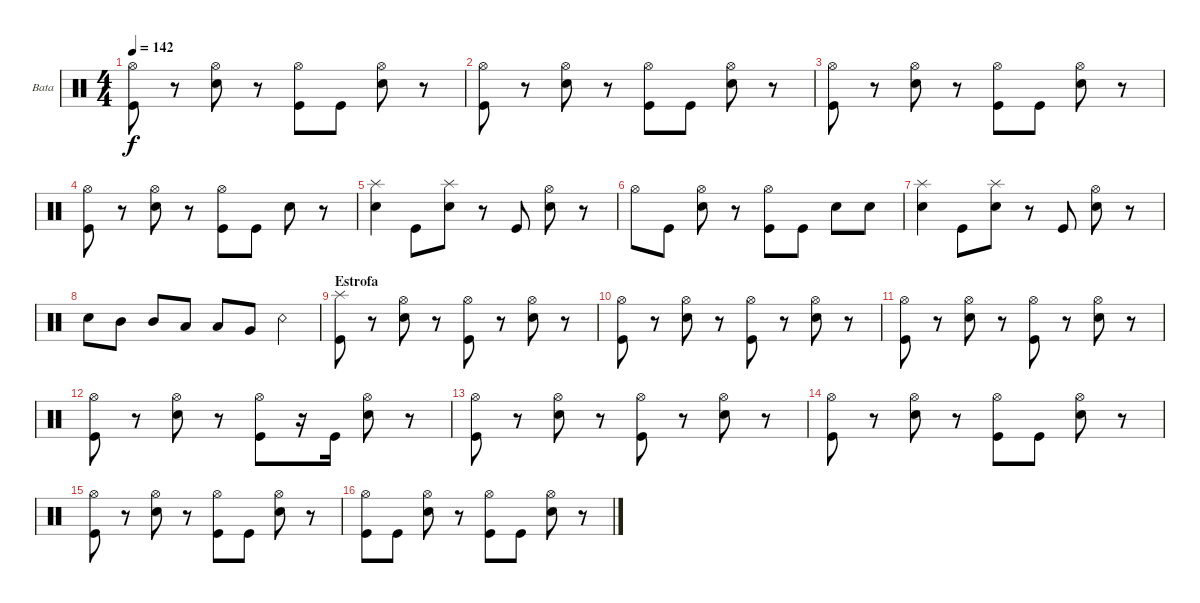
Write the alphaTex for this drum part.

\bracketExtendMode groupsimilarinstruments
\firstSystemTrackNameOrientation horizontal
\otherSystemsTrackNameOrientation horizontal
\track ("Bateria" "Bata") {instrument percussion}
\staff {score}
\articulation defaults
\ts (4 4)
\tempo 142
\clef neutral
\ks c
("Kick (hit)" "Hi-Hat (open)").8{dy f} r.8 ("Hi-Hat (open)" "Snare (hit) 2").8 r.8 ("Hi-Hat (open)" "Kick (hit)").8 "Kick (hit)".8 ("Hi-Hat (open)" "Snare (hit) 2").8 r.8 |
("Kick (hit)" "Hi-Hat (open)").8 r.8 ("Hi-Hat (open)" "Snare (hit) 2").8 r.8 ("Hi-Hat (open)" "Kick (hit)").8 "Kick (hit)".8 ("Hi-Hat (open)" "Snare (hit) 2").8 r.8 |
("Kick (hit)" "Hi-Hat (open)").8 r.8 ("Hi-Hat (open)" "Snare (hit) 2").8 r.8 ("Hi-Hat (open)" "Kick (hit)").8 "Kick (hit)".8 ("Hi-Hat (open)" "Snare (hit) 2").8 r.8 |
("Kick (hit)" "Hi-Hat (open)").8 r.8 ("Hi-Hat (open)" "Snare (hit) 2").8 r.8 ("Hi-Hat (open)" "Kick (hit)").8 "Kick (hit)".8 "Snare (hit) 2".8 r.8 |
("Snare (hit) 2" "Splash (hit)").4 "Kick (hit)".8 ("Snare (hit) 2" "Splash (hit)").8 r.8 "Kick (hit)".8 ("Snare (hit) 2" "Hi-Hat (open)").8 r.8 |
"Hi-Hat (open)".8 "Kick (hit)".8 ("Snare (hit) 2" "Hi-Hat (open)").8 r.8 ("Kick (hit)" "Hi-Hat (open)").8 "Kick (hit)".8 "Snare (hit) 2".8 "Snare (hit) 2".8 |
("Snare (hit) 2" "Splash (hit)").4 "Kick (hit)".8 ("Snare (hit) 2" "Splash (hit)").8 r.8 "Kick (hit)".8 ("Snare (hit) 2" "Hi-Hat (open)").8 r.8 |
"Snare (hit) 2".8 "Mid Tom (hit)".8 "Mid Tom (hit)".8 "Low Tom (hit)".8 "Low Tom (hit)".8 "Very Low Tom (hit)".8 "Snare (rim shot)".4 |
\section ("" "Estrofa")
("Kick (hit)" "Splash (hit)").8 r.8 ("Hi-Hat (open)" "Snare (hit) 2").8 r.8 ("Hi-Hat (open)" "Kick (hit)").8 r.8 ("Hi-Hat (open)" "Snare (hit) 2").8 r.8 |
("Kick (hit)" "Hi-Hat (open)").8 r.8 ("Hi-Hat (open)" "Snare (hit) 2").8 r.8 ("Hi-Hat (open)" "Kick (hit)").8 r.8 ("Hi-Hat (open)" "Snare (hit) 2").8 r.8 |
("Kick (hit)" "Hi-Hat (open)").8 r.8 ("Hi-Hat (open)" "Snare (hit) 2").8 r.8 ("Hi-Hat (open)" "Kick (hit)").8 r.8 ("Hi-Hat (open)" "Snare (hit) 2").8 r.8 |
("Kick (hit)" "Hi-Hat (open)").8 r.8 ("Hi-Hat (open)" "Snare (hit) 2").8 r.8 ("Hi-Hat (open)" "Kick (hit)").8 r.16 "Kick (hit)".16 ("Hi-Hat (open)" "Snare (hit) 2").8 r.8 |
("Kick (hit)" "Hi-Hat (open)").8 r.8 ("Hi-Hat (open)" "Snare (hit) 2").8 r.8 ("Hi-Hat (open)" "Kick (hit)").8 r.8 ("Hi-Hat (open)" "Snare (hit) 2").8 r.8 |
("Kick (hit)" "Hi-Hat (open)").8 r.8 ("Hi-Hat (open)" "Snare (hit) 2").8 r.8 ("Hi-Hat (open)" "Kick (hit)").8 "Kick (hit)".8 ("Hi-Hat (open)" "Snare (hit) 2").8 r.8 |
("Kick (hit)" "Hi-Hat (open)").8 r.8 ("Hi-Hat (open)" "Snare (hit) 2").8 r.8 ("Hi-Hat (open)" "Kick (hit)").8 "Kick (hit)".8 ("Hi-Hat (open)" "Snare (hit) 2").8 r.8 |
("Kick (hit)" "Hi-Hat (open)").8 "Kick (hit)".8 ("Hi-Hat (open)" "Snare (hit) 2").8 r.8 ("Hi-Hat (open)" "Kick (hit)").8 "Kick (hit)".8 ("Hi-Hat (open)" "Snare (hit) 2").8 r.8
